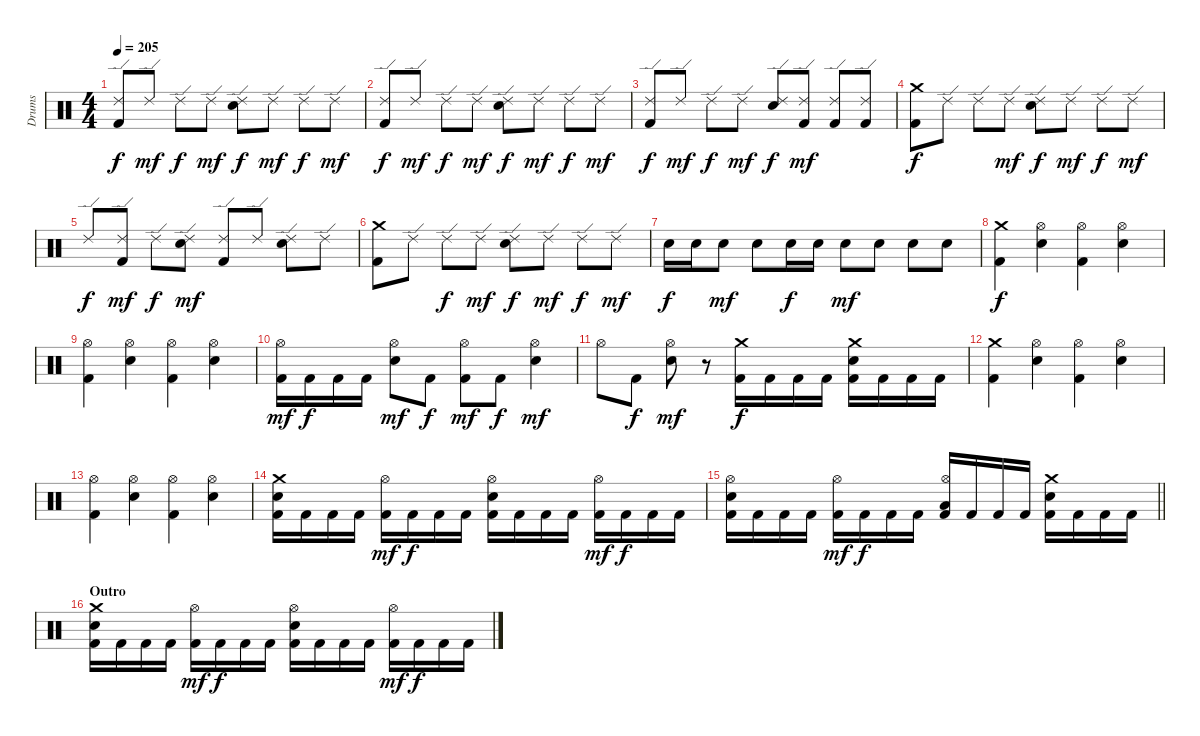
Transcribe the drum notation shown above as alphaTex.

\track ("Drums" "Drums") {instrument percussion}
\staff {score}
\articulation defaults
\ts (4 4)
\tempo 205
\clef neutral
\ks c
("Ride (edge) 2" "Kick (hit) 2").8{dy f} "Ride (edge) 2".8{dy mf} "Ride (edge) 2".8{dy f} "Ride (edge) 2".8{dy mf} ("Ride (edge) 2" "Electric Snare (hit)").8{dy f} "Ride (edge) 2".8{dy mf} "Ride (edge) 2".8{dy f} "Ride (edge) 2".8{dy mf} |
("Ride (edge) 2" "Kick (hit) 2").8{dy f} "Ride (edge) 2".8{dy mf} "Ride (edge) 2".8{dy f} "Ride (edge) 2".8{dy mf} ("Ride (edge) 2" "Electric Snare (hit)").8{dy f} "Ride (edge) 2".8{dy mf} "Ride (edge) 2".8{dy f} "Ride (edge) 2".8{dy mf} |
("Ride (edge) 2" "Kick (hit) 2").8{dy f} "Ride (edge) 2".8{dy mf} "Ride (edge) 2".8{dy f} "Ride (edge) 2".8{dy mf} ("Ride (edge) 2" "Electric Snare (hit)").8{dy f} ("Ride (edge) 2" "Kick (hit) 2").8{dy mf} ("Ride (edge) 2" "Kick (hit) 2").8 ("Ride (edge) 2" "Kick (hit) 2").8 |
("Crash medium (hit)" "Kick (hit) 2").8{dy f} "Ride (edge) 2".8 "Ride (edge) 2".8 "Ride (edge) 2".8{dy mf} ("Ride (edge) 2" "Electric Snare (hit)").8{dy f} "Ride (edge) 2".8{dy mf} "Ride (edge) 2".8{dy f} "Ride (edge) 2".8{dy mf} |
"Ride (edge) 2".8{dy f} ("Ride (edge) 2" "Kick (hit) 2").8{dy mf} "Ride (edge) 2".8{dy f} ("Ride (edge) 2" "Electric Snare (hit)").8{dy mf} ("Ride (edge) 2" "Kick (hit) 2").8 "Ride (edge) 2".8 ("Ride (edge) 2" "Electric Snare (hit)").8 "Ride (edge) 2".8 |
("Crash medium (hit)" "Kick (hit) 2").8 "Ride (edge) 2".8 "Ride (edge) 2".8{dy f} "Ride (edge) 2".8{dy mf} ("Ride (edge) 2" "Electric Snare (hit)").8{dy f} "Ride (edge) 2".8{dy mf} "Ride (edge) 2".8{dy f} "Ride (edge) 2".8{dy mf} |
"Electric Snare (hit)".16{dy f} "Electric Snare (hit)".16 "Electric Snare (hit)".8{dy mf} "Electric Snare (hit)".8 "Electric Snare (hit)".16{dy f} "Electric Snare (hit)".16 "Electric Snare (hit)".8{dy mf} "Electric Snare (hit)".8 "Electric Snare (hit)".8 "Electric Snare (hit)".8 |
("Crash medium (hit)" "Kick (hit) 2").4{dy f} ("Hi-Hat (open)" "Electric Snare (hit)").4 ("Hi-Hat (open)" "Kick (hit) 2").4 ("Hi-Hat (open)" "Electric Snare (hit)").4 |
("Hi-Hat (open)" "Kick (hit) 2").4 ("Hi-Hat (open)" "Electric Snare (hit)").4 ("Hi-Hat (open)" "Kick (hit) 2").4 ("Hi-Hat (open)" "Electric Snare (hit)").4 |
("Hi-Hat (open)" "Kick (hit) 2").16{dy mf} "Kick (hit) 2".16{dy f} "Kick (hit) 2".16 "Kick (hit) 2".16 ("Hi-Hat (open)" "Electric Snare (hit)").8{dy mf} "Kick (hit) 2".8{dy f} ("Hi-Hat (open)" "Kick (hit) 2").8{dy mf} "Kick (hit) 2".8{dy f} ("Hi-Hat (open)" "Electric Snare (hit)").4{dy mf} |
"Hi-Hat (open)".8 "Kick (hit) 2".8{dy f} ("Hi-Hat (open)" "Electric Snare (hit)").8{dy mf} r.8 ("Crash medium (hit)" "Kick (hit) 2").16{dy f} "Kick (hit) 2".16 "Kick (hit) 2".16 "Kick (hit) 2".16 ("Crash medium (hit)" "Electric Snare (hit)" "Kick (hit) 2").16 "Kick (hit) 2".16 "Kick (hit) 2".16 "Kick (hit) 2".16 |
("Crash medium (hit)" "Kick (hit) 2").4 ("Hi-Hat (open)" "Electric Snare (hit)").4 ("Hi-Hat (open)" "Kick (hit) 2").4 ("Hi-Hat (open)" "Electric Snare (hit)").4 |
("Hi-Hat (open)" "Kick (hit) 2").4 ("Hi-Hat (open)" "Electric Snare (hit)").4 ("Hi-Hat (open)" "Kick (hit) 2").4 ("Hi-Hat (open)" "Electric Snare (hit)").4 |
("Crash medium (hit)" "Electric Snare (hit)" "Kick (hit) 2").16 "Kick (hit) 2".16 "Kick (hit) 2".16 "Kick (hit) 2".16 ("Hi-Hat (open)" "Kick (hit) 2").16{dy mf} "Kick (hit) 2".16{dy f} "Kick (hit) 2".16 "Kick (hit) 2".16 ("Hi-Hat (open)" "Electric Snare (hit)" "Kick (hit) 2").16 "Kick (hit) 2".16 "Kick (hit) 2".16 "Kick (hit) 2".16 ("Hi-Hat (open)" "Kick (hit) 2").16{dy mf} "Kick (hit) 2".16{dy f} "Kick (hit) 2".16 "Kick (hit) 2".16 |
\barLineRight lightlight
("Hi-Hat (open)" "Electric Snare (hit)" "Kick (hit) 2").16 "Kick (hit) 2".16 "Kick (hit) 2".16 "Kick (hit) 2".16 ("Hi-Hat (open)" "Kick (hit) 2").16{dy mf} "Kick (hit) 2".16{dy f} "Kick (hit) 2".16 "Kick (hit) 2".16 ("Hi-Hat (open)" "Low Floor Tom (hit)" "Kick (hit) 2").16 "Kick (hit) 2".16 "Kick (hit) 2".16 "Kick (hit) 2".16 ("Crash medium (hit)" "Electric Snare (hit)" "Kick (hit) 2").16 "Kick (hit) 2".16 "Kick (hit) 2".16 "Kick (hit) 2".16 |
\section ("" "Outro")
("Crash medium (hit)" "Electric Snare (hit)" "Kick (hit) 2").16 "Kick (hit) 2".16 "Kick (hit) 2".16 "Kick (hit) 2".16 ("Hi-Hat (open)" "Kick (hit) 2").16{dy mf} "Kick (hit) 2".16{dy f} "Kick (hit) 2".16 "Kick (hit) 2".16 ("Hi-Hat (open)" "Electric Snare (hit)" "Kick (hit) 2").16 "Kick (hit) 2".16 "Kick (hit) 2".16 "Kick (hit) 2".16 ("Hi-Hat (open)" "Kick (hit) 2").16{dy mf} "Kick (hit) 2".16{dy f} "Kick (hit) 2".16 "Kick (hit) 2".16
